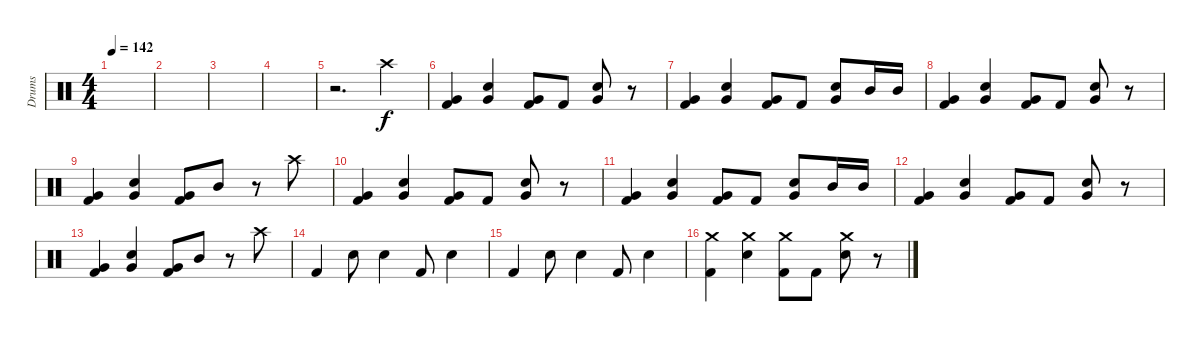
\track ("Drums" "Drums") {instrument percussion}
\staff {score}
\articulation defaults
\ts (4 4)
\tempo 142
\clef neutral
\ks c
|
|
|
|
r.2{d} "Crash high (hit)".4 |
("Very Low Tom (hit)" "Kick (hit) 2").4 ("Very Low Tom (hit)" "Snare (hit) 2").4 ("Very Low Tom (hit)" "Kick (hit) 2").8 "Kick (hit) 2".8 ("Very Low Tom (hit)" "Snare (hit) 2").8 r.8 |
("Very Low Tom (hit)" "Kick (hit) 2").4 ("Very Low Tom (hit)" "Snare (hit) 2").4 ("Very Low Tom (hit)" "Kick (hit) 2").8 "Kick (hit) 2".8 ("Very Low Tom (hit)" "Snare (hit) 2").8 "Mid Tom (hit)".16 "Mid Tom (hit)".16 |
("Very Low Tom (hit)" "Kick (hit) 2").4 ("Very Low Tom (hit)" "Snare (hit) 2").4 ("Very Low Tom (hit)" "Kick (hit) 2").8 "Kick (hit) 2".8 ("Very Low Tom (hit)" "Snare (hit) 2").8 r.8 |
("Very Low Tom (hit)" "Kick (hit) 2").4 ("Very Low Tom (hit)" "Snare (hit) 2").4 ("Very Low Tom (hit)" "Kick (hit) 2").8 "Mid Tom (hit)".8 r.8 "Crash high (hit)".8 |
("Very Low Tom (hit)" "Kick (hit) 2").4 ("Very Low Tom (hit)" "Snare (hit) 2").4 ("Very Low Tom (hit)" "Kick (hit) 2").8 "Kick (hit) 2".8 ("Very Low Tom (hit)" "Snare (hit) 2").8 r.8 |
("Very Low Tom (hit)" "Kick (hit) 2").4 ("Very Low Tom (hit)" "Snare (hit) 2").4 ("Very Low Tom (hit)" "Kick (hit) 2").8 "Kick (hit) 2".8 ("Very Low Tom (hit)" "Snare (hit) 2").8 "Mid Tom (hit)".16 "Mid Tom (hit)".16 |
("Very Low Tom (hit)" "Kick (hit) 2").4 ("Very Low Tom (hit)" "Snare (hit) 2").4 ("Very Low Tom (hit)" "Kick (hit) 2").8 "Kick (hit) 2".8 ("Very Low Tom (hit)" "Snare (hit) 2").8 r.8 |
("Very Low Tom (hit)" "Kick (hit) 2").4 ("Very Low Tom (hit)" "Snare (hit) 2").4 ("Very Low Tom (hit)" "Kick (hit) 2").8 "Mid Tom (hit)".8 r.8 "Crash high (hit)".8 |
"Kick (hit) 2".4 "Snare (hit) 2".8 "Snare (hit) 2".4 "Kick (hit) 2".8 "Snare (hit) 2".4 |
"Kick (hit) 2".4 "Snare (hit) 2".8 "Snare (hit) 2".4 "Kick (hit) 2".8 "Snare (hit) 2".4 |
("Crash medium (hit)" "Kick (hit) 2").4 ("Crash medium (hit)" "Snare (hit) 2").4 ("Crash medium (hit)" "Kick (hit) 2").8 "Kick (hit) 2".8 ("Crash medium (hit)" "Snare (hit) 2").8 r.8
